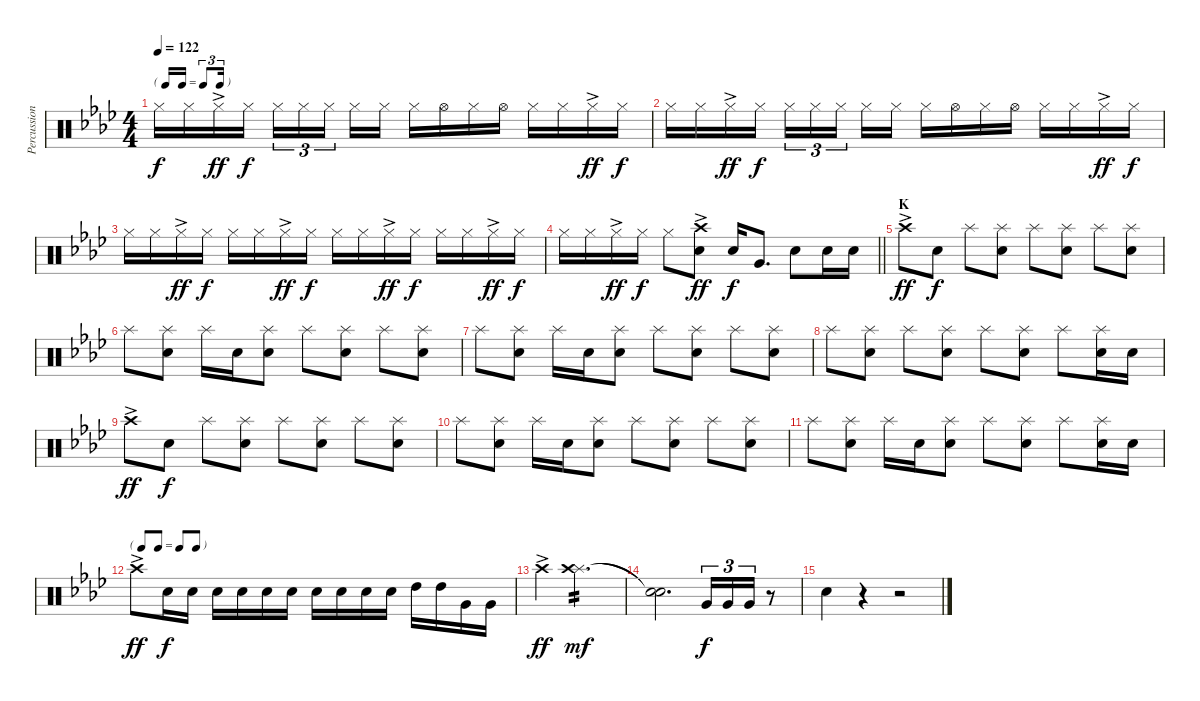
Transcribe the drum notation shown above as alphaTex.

\track ("Percussion Hand" "Percussion") {instrument percussion}
\staff {score}
\articulation defaults
\ts (4 4)
\tf triplet16th
\tempo 122
\clef neutral
\ks ab "Hi-Hat (closed)".16{dy f} "Hi-Hat (closed)".16 "Hi-Hat (closed)"{ac}.16{dy ff} "Hi-Hat (closed)".16{dy f} "Hi-Hat (closed)".16{tu (3 2)} "Hi-Hat (closed)".16{tu (3 2)} "Hi-Hat (closed)".16{tu (3 2) beam splitsecondary} "Hi-Hat (closed)".16 "Hi-Hat (closed)".16 "Hi-Hat (closed)".16 "Hi-Hat (open)".16 "Hi-Hat (closed)".16 "Hi-Hat (open)".16 "Hi-Hat (closed)".16 "Hi-Hat (closed)".16 "Hi-Hat (closed)"{ac}.16{dy ff} "Hi-Hat (closed)".16{dy f}
|
"Hi-Hat (closed)".16 "Hi-Hat (closed)".16 "Hi-Hat (closed)"{ac}.16{dy ff} "Hi-Hat (closed)".16{dy f} "Hi-Hat (closed)".16{tu (3 2)} "Hi-Hat (closed)".16{tu (3 2)} "Hi-Hat (closed)".16{tu (3 2) beam splitsecondary} "Hi-Hat (closed)".16 "Hi-Hat (closed)".16 "Hi-Hat (closed)".16 "Hi-Hat (open)".16 "Hi-Hat (closed)".16 "Hi-Hat (open)".16 "Hi-Hat (closed)".16 "Hi-Hat (closed)".16 "Hi-Hat (closed)"{ac}.16{dy ff} "Hi-Hat (closed)".16{dy f} |
"Hi-Hat (closed)".16 "Hi-Hat (closed)".16 "Hi-Hat (closed)"{ac}.16{dy ff} "Hi-Hat (closed)".16{dy f} "Hi-Hat (closed)".16 "Hi-Hat (closed)".16 "Hi-Hat (closed)"{ac}.16{dy ff} "Hi-Hat (closed)".16{dy f} "Hi-Hat (closed)".16 "Hi-Hat (closed)".16 "Hi-Hat (closed)"{ac}.16{dy ff} "Hi-Hat (closed)".16{dy f} "Hi-Hat (closed)".16 "Hi-Hat (closed)".16 "Hi-Hat (closed)"{ac}.16{dy ff} "Hi-Hat (closed)".16{dy f} |
\barLineRight lightlight "Hi-Hat (closed)".16 "Hi-Hat (closed)".16 "Hi-Hat (closed)"{ac}.16{dy ff} "Hi-Hat (closed)".16{dy f} "Hi-Hat (closed)".8
("Crash high (hit)"{ac} "Snare (hit) 2").8{dy ff} "Snare (hit) 2".16{dy f} "Very Low Tom (hit)".8{d} "Snare (hit) 2".8 "Snare (hit) 2".16 "Snare (hit) 2".16 |
\section ("" "K")
"Crash high (hit)"{ac}.8{dy ff} "Snare (hit) 2".8{dy f} "Splash (hit)".8 ("Splash (hit)" "Snare (hit) 2").8 "Splash (hit)".8 ("Splash (hit)" "Snare (hit) 2").8 "Splash (hit)".8 ("Splash (hit)" "Snare (hit) 2").8 |
"Splash (hit)".8 ("Splash (hit)" "Snare (hit) 2").8 "Splash (hit)".16 "Snare (hit) 2".16 ("Splash (hit)" "Snare (hit) 2").8 "Splash (hit)".8 ("Splash (hit)" "Snare (hit) 2").8 "Splash (hit)".8 ("Splash (hit)" "Snare (hit) 2").8 |
"Splash (hit)".8 ("Splash (hit)" "Snare (hit) 2").8 "Splash (hit)".16 "Snare (hit) 2".16 ("Splash (hit)" "Snare (hit) 2").8 "Splash (hit)".8 ("Splash (hit)" "Snare (hit) 2").8 "Splash (hit)".8 ("Splash (hit)" "Snare (hit) 2").8 |
"Splash (hit)".8 ("Splash (hit)" "Snare (hit) 2").8 "Splash (hit)".8 ("Splash (hit)" "Snare (hit) 2").8 "Splash (hit)".8 ("Splash (hit)" "Snare (hit) 2").8 "Splash (hit)".8 ("Splash (hit)" "Snare (hit) 2").16 "Snare (hit) 2".16 |
"Crash high (hit)"{ac}.8{dy ff} "Snare (hit) 2".8{dy f} "Splash (hit)".8 ("Splash (hit)" "Snare (hit) 2").8 "Splash (hit)".8 ("Splash (hit)" "Snare (hit) 2").8 "Splash (hit)".8 ("Splash (hit)" "Snare (hit) 2").8 |
"Splash (hit)".8 ("Splash (hit)" "Snare (hit) 2").8 "Splash (hit)".16 "Snare (hit) 2".16 ("Splash (hit)" "Snare (hit) 2").8 "Splash (hit)".8 ("Splash (hit)" "Snare (hit) 2").8 "Splash (hit)".8 ("Splash (hit)" "Snare (hit) 2").8 |
"Splash (hit)".8 ("Splash (hit)" "Snare (hit) 2").8 "Splash (hit)".16 "Snare (hit) 2".16 ("Snare (hit) 2" "Splash (hit)").8 "Splash (hit)".8 ("Splash (hit)" "Snare (hit) 2").8 "Splash (hit)".8 ("Splash (hit)" "Snare (hit) 2").16 "Snare (hit) 2".16 |
\tf none "Crash high (hit)"{ac}.8{dy ff} "Snare (hit) 2".16{dy f} "Snare (hit) 2".16 "Snare (hit) 2".16 "Snare (hit) 2".16 "Snare (hit) 2".16 "Snare (hit) 2".16 "Snare (hit) 2".16 "Snare (hit) 2".16 "Snare (hit) 2".16 "Snare (hit) 2".16 "High Tom (hit)".16 "High Tom (hit)".16 "Very Low Tom (hit)".16 "Very Low Tom (hit)".16
|
"Crash high (hit)"{ac}.4{dy ff} ("Splash (hit)" "Crash high (hit)").2{d tp 2 dy mf} |
("Snare (hit)"{t} "Snare (hit)"{t}).2{d} "Very Low Tom (hit)".16{tu (3 2) dy f} "Very Low Tom (hit)".16{tu (3 2)} "Very Low Tom (hit)".16{tu (3 2)} r.8 |
"Snare (hit) 2".4 r.4 r.2
